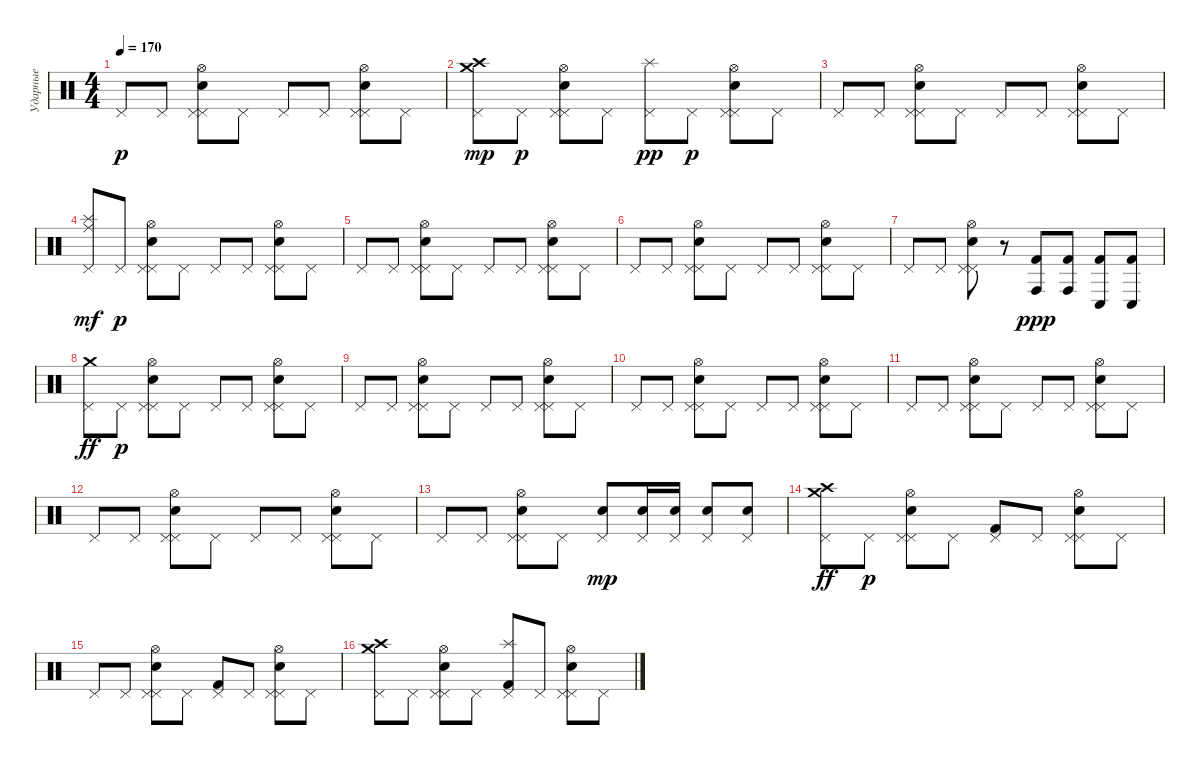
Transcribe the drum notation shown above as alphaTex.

\track ("Ударные" "Ударные") {instrument percussion}
\staff {score}
\articulation defaults
\ts (4 4)
\tempo 170
\clef neutral
\ks c "Pedal Hi-Hat (hit)".8{dy p} "Pedal Hi-Hat (hit)".8
("Pedal Hi-Hat (hit)" "Snare (hit) 2" "Pedal Hi-Hat (hit)" "Hi-Hat (open)").8 "Pedal Hi-Hat (hit)".8 "Pedal Hi-Hat (hit)".8 "Pedal Hi-Hat (hit)".8 ("Pedal Hi-Hat (hit)" "Snare (hit) 2" "Pedal Hi-Hat (hit)" "Hi-Hat (open)").8 "Pedal Hi-Hat (hit)".8 |
("Pedal Hi-Hat (hit)" "Crash high (hit)" "Crash medium (hit)").8{dy mp} "Pedal Hi-Hat (hit)".8{dy p} ("Pedal Hi-Hat (hit)" "Snare (hit) 2" "Pedal Hi-Hat (hit)" "Hi-Hat (open)").8 "Pedal Hi-Hat (hit)".8 ("Pedal Hi-Hat (hit)" "Splash (hit)").8{dy pp} "Pedal Hi-Hat (hit)".8{dy p} ("Pedal Hi-Hat (hit)" "Snare (hit) 2" "Pedal Hi-Hat (hit)" "Hi-Hat (open)").8 "Pedal Hi-Hat (hit)".8 |
"Pedal Hi-Hat (hit)".8 "Pedal Hi-Hat (hit)".8 ("Pedal Hi-Hat (hit)" "Snare (hit) 2" "Pedal Hi-Hat (hit)" "Hi-Hat (open)").8 "Pedal Hi-Hat (hit)".8 "Pedal Hi-Hat (hit)".8 "Pedal Hi-Hat (hit)".8 ("Pedal Hi-Hat (hit)" "Snare (hit) 2" "Pedal Hi-Hat (hit)" "Hi-Hat (open)").8 "Pedal Hi-Hat (hit)".8 |
("Pedal Hi-Hat (hit)" "Splash (hit)" "Ride (middle)").8{dy mf} "Pedal Hi-Hat (hit)".8{dy p} ("Pedal Hi-Hat (hit)" "Snare (hit) 2" "Pedal Hi-Hat (hit)" "Hi-Hat (open)").8 "Pedal Hi-Hat (hit)".8 "Pedal Hi-Hat (hit)".8 "Pedal Hi-Hat (hit)".8 ("Pedal Hi-Hat (hit)" "Snare (hit) 2" "Pedal Hi-Hat (hit)" "Hi-Hat (open)").8 "Pedal Hi-Hat (hit)".8 |
"Pedal Hi-Hat (hit)".8 "Pedal Hi-Hat (hit)".8 ("Pedal Hi-Hat (hit)" "Snare (hit) 2" "Pedal Hi-Hat (hit)" "Hi-Hat (open)").8 "Pedal Hi-Hat (hit)".8 "Pedal Hi-Hat (hit)".8 "Pedal Hi-Hat (hit)".8 ("Pedal Hi-Hat (hit)" "Snare (hit) 2" "Pedal Hi-Hat (hit)" "Hi-Hat (open)").8 "Pedal Hi-Hat (hit)".8 |
"Pedal Hi-Hat (hit)".8 "Pedal Hi-Hat (hit)".8 ("Pedal Hi-Hat (hit)" "Snare (hit) 2" "Pedal Hi-Hat (hit)" "Hi-Hat (open)").8 "Pedal Hi-Hat (hit)".8 "Pedal Hi-Hat (hit)".8 "Pedal Hi-Hat (hit)".8 ("Pedal Hi-Hat (hit)" "Snare (hit) 2" "Pedal Hi-Hat (hit)" "Hi-Hat (open)").8 "Pedal Hi-Hat (hit)".8 |
"Pedal Hi-Hat (hit)".8 "Pedal Hi-Hat (hit)".8 ("Pedal Hi-Hat (hit)" "Snare (hit) 2" "Pedal Hi-Hat (hit)" "Hi-Hat (open)").8 r.8 ("Kick (hit) 2" "Conga high (hit)").8{dy ppp} ("Kick (hit) 2" "Conga high (hit)").8 ("Kick (hit) 2" "Conga low (hit)").8 ("Kick (hit) 2" "Conga low (hit)").8 |
("Pedal Hi-Hat (hit)" "Crash medium (hit)").8{dy ff} "Pedal Hi-Hat (hit)".8{dy p} ("Pedal Hi-Hat (hit)" "Snare (hit) 2" "Pedal Hi-Hat (hit)" "Hi-Hat (open)").8 "Pedal Hi-Hat (hit)".8 "Pedal Hi-Hat (hit)".8 "Pedal Hi-Hat (hit)".8 ("Pedal Hi-Hat (hit)" "Snare (hit) 2" "Pedal Hi-Hat (hit)" "Hi-Hat (open)").8 "Pedal Hi-Hat (hit)".8 |
"Pedal Hi-Hat (hit)".8 "Pedal Hi-Hat (hit)".8 ("Pedal Hi-Hat (hit)" "Snare (hit) 2" "Pedal Hi-Hat (hit)" "Hi-Hat (open)").8 "Pedal Hi-Hat (hit)".8 "Pedal Hi-Hat (hit)".8 "Pedal Hi-Hat (hit)".8 ("Pedal Hi-Hat (hit)" "Snare (hit) 2" "Pedal Hi-Hat (hit)" "Hi-Hat (open)").8 "Pedal Hi-Hat (hit)".8 |
"Pedal Hi-Hat (hit)".8 "Pedal Hi-Hat (hit)".8 ("Pedal Hi-Hat (hit)" "Snare (hit) 2" "Pedal Hi-Hat (hit)" "Hi-Hat (open)").8 "Pedal Hi-Hat (hit)".8 "Pedal Hi-Hat (hit)".8 "Pedal Hi-Hat (hit)".8 ("Pedal Hi-Hat (hit)" "Snare (hit) 2" "Pedal Hi-Hat (hit)" "Hi-Hat (open)").8 "Pedal Hi-Hat (hit)".8 |
"Pedal Hi-Hat (hit)".8 "Pedal Hi-Hat (hit)".8 ("Pedal Hi-Hat (hit)" "Snare (hit) 2" "Pedal Hi-Hat (hit)" "Hi-Hat (open)").8 "Pedal Hi-Hat (hit)".8 "Pedal Hi-Hat (hit)".8 "Pedal Hi-Hat (hit)".8 ("Pedal Hi-Hat (hit)" "Snare (hit) 2" "Pedal Hi-Hat (hit)" "Hi-Hat (open)").8 "Pedal Hi-Hat (hit)".8 |
"Pedal Hi-Hat (hit)".8 "Pedal Hi-Hat (hit)".8 ("Pedal Hi-Hat (hit)" "Snare (hit) 2" "Pedal Hi-Hat (hit)" "Hi-Hat (open)").8 "Pedal Hi-Hat (hit)".8 "Pedal Hi-Hat (hit)".8 "Pedal Hi-Hat (hit)".8 ("Pedal Hi-Hat (hit)" "Snare (hit) 2" "Pedal Hi-Hat (hit)" "Hi-Hat (open)").8 "Pedal Hi-Hat (hit)".8 |
"Pedal Hi-Hat (hit)".8 "Pedal Hi-Hat (hit)".8 ("Pedal Hi-Hat (hit)" "Snare (hit) 2" "Pedal Hi-Hat (hit)" "Hi-Hat (open)").8 "Pedal Hi-Hat (hit)".8 ("Electric Snare (hit)" "Pedal Hi-Hat (hit)").8{dy mp} ("Electric Snare (hit)" "Pedal Hi-Hat (hit)").16 ("Electric Snare (hit)" "Pedal Hi-Hat (hit)").16 ("Electric Snare (hit)" "Pedal Hi-Hat (hit)").8 ("Electric Snare (hit)" "Pedal Hi-Hat (hit)").8 |
("Pedal Hi-Hat (hit)" "Crash high (hit)" "Crash medium (hit)").8{dy ff} "Pedal Hi-Hat (hit)".8{dy p} ("Pedal Hi-Hat (hit)" "Snare (hit) 2" "Pedal Hi-Hat (hit)" "Hi-Hat (open)").8 "Pedal Hi-Hat (hit)".8 ("Pedal Hi-Hat (hit)" "Kick (hit) 2").8 "Pedal Hi-Hat (hit)".8 ("Pedal Hi-Hat (hit)" "Snare (hit) 2" "Pedal Hi-Hat (hit)" "Hi-Hat (open)").8 "Pedal Hi-Hat (hit)".8 |
"Pedal Hi-Hat (hit)".8 "Pedal Hi-Hat (hit)".8 ("Pedal Hi-Hat (hit)" "Snare (hit) 2" "Pedal Hi-Hat (hit)" "Hi-Hat (open)").8 "Pedal Hi-Hat (hit)".8 ("Pedal Hi-Hat (hit)" "Kick (hit) 2").8 "Pedal Hi-Hat (hit)".8 ("Pedal Hi-Hat (hit)" "Snare (hit) 2" "Pedal Hi-Hat (hit)" "Hi-Hat (open)").8 "Pedal Hi-Hat (hit)".8 |
("Pedal Hi-Hat (hit)" "Crash high (hit)" "Crash medium (hit)").8 "Pedal Hi-Hat (hit)".8 ("Pedal Hi-Hat (hit)" "Snare (hit) 2" "Pedal Hi-Hat (hit)" "Hi-Hat (open)").8 "Pedal Hi-Hat (hit)".8 ("Splash (hit)" "Pedal Hi-Hat (hit)" "Kick (hit) 2").8 "Pedal Hi-Hat (hit)".8 ("Pedal Hi-Hat (hit)" "Snare (hit) 2" "Pedal Hi-Hat (hit)" "Hi-Hat (open)").8 "Pedal Hi-Hat (hit)".8
